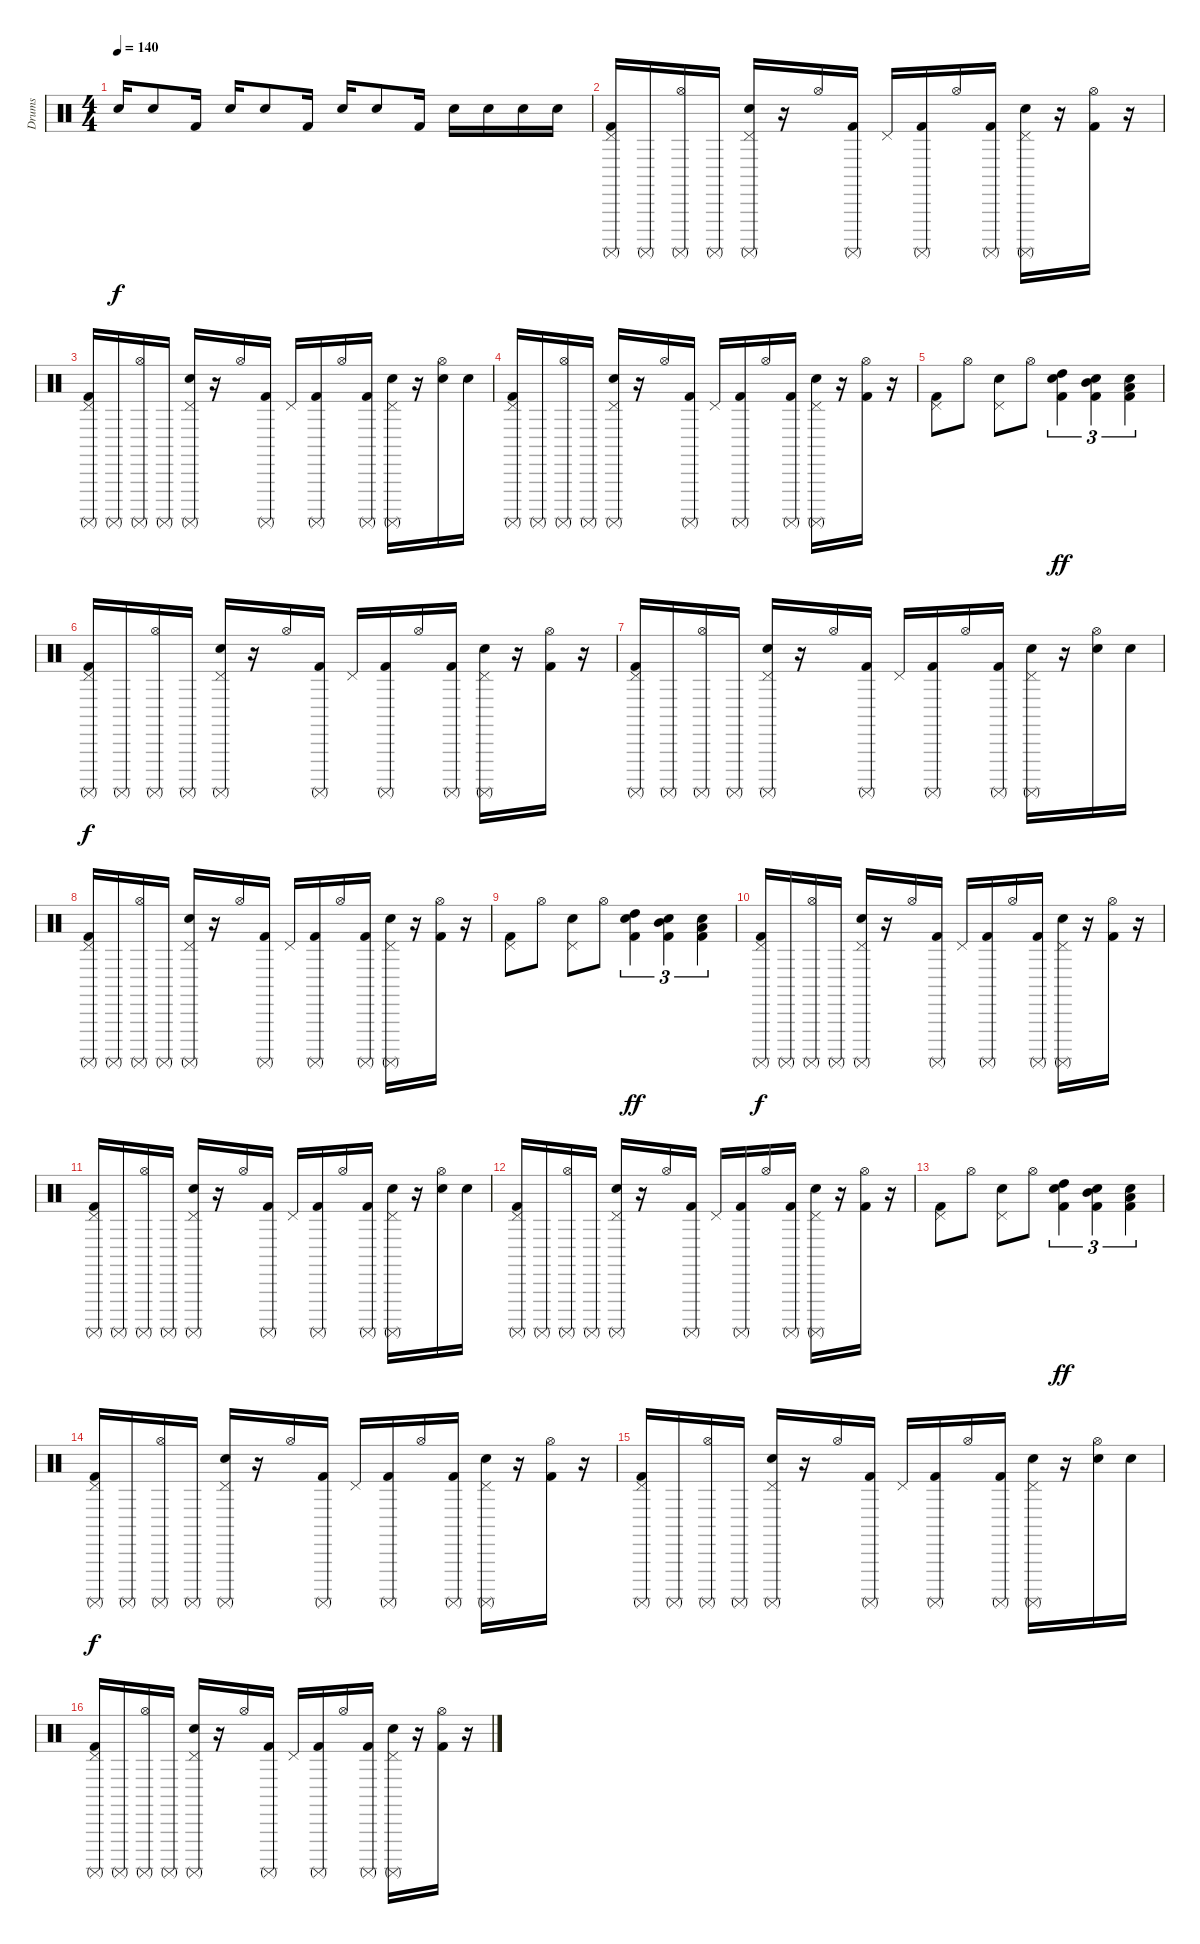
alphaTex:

\track ("Drums" "Drums") {instrument percussion}
\staff {score}
\articulation defaults
\ts (4 4)
\tempo 140
\clef neutral
\ks c "Electric Snare (hit)".16{dy f} "Electric Snare (hit)".8 "Kick (hit) 2".16 "Electric Snare (hit)".16 "Electric Snare (hit)".8 "Kick (hit) 2".16 "Electric Snare (hit)".16 "Electric Snare (hit)".8 "Kick (hit) 2".16 "Electric Snare (hit)".16 "Electric Snare (hit)".16 "Electric Snare (hit)".16 "Electric Snare (hit)".16
|
("Surdo (mute)" "Pedal Hi-Hat (hit)" "Kick (hit) 2").16 "Surdo (mute)".16 ("Surdo (mute)" "Hi-Hat (open)").16 "Surdo (mute)".16 ("Surdo (mute)" "Electric Snare (hit)" "Pedal Hi-Hat (hit)").16 r.16 "Hi-Hat (open)".16 ("Surdo (mute)" "Kick (hit) 2").16 "Pedal Hi-Hat (hit)".16 ("Surdo (mute)" "Kick (hit) 2").16 "Hi-Hat (open)".16 ("Surdo (mute)" "Kick (hit) 2").16 ("Surdo (mute)" "Electric Snare (hit)" "Pedal Hi-Hat (hit)").16 r.16 ("Hi-Hat (open)" "Kick (hit) 2").16 r.16 |
("Surdo (mute)" "Pedal Hi-Hat (hit)" "Kick (hit) 2").16 "Surdo (mute)".16 ("Surdo (mute)" "Hi-Hat (open)").16 "Surdo (mute)".16 ("Surdo (mute)" "Electric Snare (hit)" "Pedal Hi-Hat (hit)").16 r.16 "Hi-Hat (open)".16 ("Surdo (mute)" "Kick (hit) 2").16 "Pedal Hi-Hat (hit)".16 ("Surdo (mute)" "Kick (hit) 2").16 "Hi-Hat (open)".16 ("Surdo (mute)" "Kick (hit) 2").16 ("Surdo (mute)" "Electric Snare (hit)" "Pedal Hi-Hat (hit)").16 r.16 ("Electric Snare (hit)" "Hi-Hat (open)").16 "Electric Snare (hit)".16 |
("Surdo (mute)" "Pedal Hi-Hat (hit)" "Kick (hit) 2").16 "Surdo (mute)".16 ("Surdo (mute)" "Hi-Hat (open)").16 "Surdo (mute)".16 ("Surdo (mute)" "Electric Snare (hit)" "Pedal Hi-Hat (hit)").16 r.16 "Hi-Hat (open)".16 ("Surdo (mute)" "Kick (hit) 2").16 "Pedal Hi-Hat (hit)".16 ("Surdo (mute)" "Kick (hit) 2").16 "Hi-Hat (open)".16 ("Surdo (mute)" "Kick (hit) 2").16 ("Surdo (mute)" "Electric Snare (hit)" "Pedal Hi-Hat (hit)").16 r.16 ("Hi-Hat (open)" "Kick (hit) 2").16 r.16 |
("Pedal Hi-Hat (hit)" "Kick (hit) 2").8 "Hi-Hat (open)".8 ("Pedal Hi-Hat (hit)" "Electric Snare (hit)").8 "Hi-Hat (open)".8 ("High Tom (hit)" "Electric Snare (hit)" "Kick (hit) 2").4{tu (3 2) dy ff} ("Mid Tom (hit)" "Electric Snare (hit)" "Kick (hit) 2").4{tu (3 2)} ("Low Tom (hit)" "Electric Snare (hit)" "Kick (hit) 2").4{tu (3 2)} |
("Surdo (mute)" "Pedal Hi-Hat (hit)" "Kick (hit) 2").16{dy f} "Surdo (mute)".16 ("Surdo (mute)" "Hi-Hat (open)").16 "Surdo (mute)".16 ("Surdo (mute)" "Electric Snare (hit)" "Pedal Hi-Hat (hit)").16 r.16 "Hi-Hat (open)".16 ("Surdo (mute)" "Kick (hit) 2").16 "Pedal Hi-Hat (hit)".16 ("Surdo (mute)" "Kick (hit) 2").16 "Hi-Hat (open)".16 ("Surdo (mute)" "Kick (hit) 2").16 ("Surdo (mute)" "Electric Snare (hit)" "Pedal Hi-Hat (hit)").16 r.16 ("Hi-Hat (open)" "Kick (hit) 2").16 r.16 |
("Surdo (mute)" "Pedal Hi-Hat (hit)" "Kick (hit) 2").16 "Surdo (mute)".16 ("Surdo (mute)" "Hi-Hat (open)").16 "Surdo (mute)".16 ("Surdo (mute)" "Electric Snare (hit)" "Pedal Hi-Hat (hit)").16 r.16 "Hi-Hat (open)".16 ("Surdo (mute)" "Kick (hit) 2").16 "Pedal Hi-Hat (hit)".16 ("Surdo (mute)" "Kick (hit) 2").16 "Hi-Hat (open)".16 ("Surdo (mute)" "Kick (hit) 2").16 ("Surdo (mute)" "Electric Snare (hit)" "Pedal Hi-Hat (hit)").16 r.16 ("Electric Snare (hit)" "Hi-Hat (open)").16 "Electric Snare (hit)".16 |
("Surdo (mute)" "Pedal Hi-Hat (hit)" "Kick (hit) 2").16 "Surdo (mute)".16 ("Surdo (mute)" "Hi-Hat (open)").16 "Surdo (mute)".16 ("Surdo (mute)" "Electric Snare (hit)" "Pedal Hi-Hat (hit)").16 r.16 "Hi-Hat (open)".16 ("Surdo (mute)" "Kick (hit) 2").16 "Pedal Hi-Hat (hit)".16 ("Surdo (mute)" "Kick (hit) 2").16 "Hi-Hat (open)".16 ("Surdo (mute)" "Kick (hit) 2").16 ("Surdo (mute)" "Electric Snare (hit)" "Pedal Hi-Hat (hit)").16 r.16 ("Hi-Hat (open)" "Kick (hit) 2").16 r.16 |
("Pedal Hi-Hat (hit)" "Kick (hit) 2").8 "Hi-Hat (open)".8 ("Pedal Hi-Hat (hit)" "Electric Snare (hit)").8 "Hi-Hat (open)".8 ("High Tom (hit)" "Electric Snare (hit)" "Kick (hit) 2").4{tu (3 2) dy ff} ("Mid Tom (hit)" "Electric Snare (hit)" "Kick (hit) 2").4{tu (3 2)} ("Low Tom (hit)" "Electric Snare (hit)" "Kick (hit) 2").4{tu (3 2)} |
("Surdo (mute)" "Pedal Hi-Hat (hit)" "Kick (hit) 2").16{dy f} "Surdo (mute)".16 ("Surdo (mute)" "Hi-Hat (open)").16 "Surdo (mute)".16 ("Surdo (mute)" "Electric Snare (hit)" "Pedal Hi-Hat (hit)").16 r.16 "Hi-Hat (open)".16 ("Surdo (mute)" "Kick (hit) 2").16 "Pedal Hi-Hat (hit)".16 ("Surdo (mute)" "Kick (hit) 2").16 "Hi-Hat (open)".16 ("Surdo (mute)" "Kick (hit) 2").16 ("Surdo (mute)" "Electric Snare (hit)" "Pedal Hi-Hat (hit)").16 r.16 ("Hi-Hat (open)" "Kick (hit) 2").16 r.16 |
("Surdo (mute)" "Pedal Hi-Hat (hit)" "Kick (hit) 2").16 "Surdo (mute)".16 ("Surdo (mute)" "Hi-Hat (open)").16 "Surdo (mute)".16 ("Surdo (mute)" "Electric Snare (hit)" "Pedal Hi-Hat (hit)").16 r.16 "Hi-Hat (open)".16 ("Surdo (mute)" "Kick (hit) 2").16 "Pedal Hi-Hat (hit)".16 ("Surdo (mute)" "Kick (hit) 2").16 "Hi-Hat (open)".16 ("Surdo (mute)" "Kick (hit) 2").16 ("Surdo (mute)" "Electric Snare (hit)" "Pedal Hi-Hat (hit)").16 r.16 ("Electric Snare (hit)" "Hi-Hat (open)").16 "Electric Snare (hit)".16 |
("Surdo (mute)" "Pedal Hi-Hat (hit)" "Kick (hit) 2").16 "Surdo (mute)".16 ("Surdo (mute)" "Hi-Hat (open)").16 "Surdo (mute)".16 ("Surdo (mute)" "Electric Snare (hit)" "Pedal Hi-Hat (hit)").16 r.16 "Hi-Hat (open)".16 ("Surdo (mute)" "Kick (hit) 2").16 "Pedal Hi-Hat (hit)".16 ("Surdo (mute)" "Kick (hit) 2").16 "Hi-Hat (open)".16 ("Surdo (mute)" "Kick (hit) 2").16 ("Surdo (mute)" "Electric Snare (hit)" "Pedal Hi-Hat (hit)").16 r.16 ("Hi-Hat (open)" "Kick (hit) 2").16 r.16 |
("Pedal Hi-Hat (hit)" "Kick (hit) 2").8 "Hi-Hat (open)".8 ("Pedal Hi-Hat (hit)" "Electric Snare (hit)").8 "Hi-Hat (open)".8 ("High Tom (hit)" "Electric Snare (hit)" "Kick (hit) 2").4{tu (3 2) dy ff} ("Mid Tom (hit)" "Electric Snare (hit)" "Kick (hit) 2").4{tu (3 2)} ("Low Tom (hit)" "Electric Snare (hit)" "Kick (hit) 2").4{tu (3 2)} |
("Surdo (mute)" "Pedal Hi-Hat (hit)" "Kick (hit) 2").16{dy f} "Surdo (mute)".16 ("Surdo (mute)" "Hi-Hat (open)").16 "Surdo (mute)".16 ("Surdo (mute)" "Electric Snare (hit)" "Pedal Hi-Hat (hit)").16 r.16 "Hi-Hat (open)".16 ("Surdo (mute)" "Kick (hit) 2").16 "Pedal Hi-Hat (hit)".16 ("Surdo (mute)" "Kick (hit) 2").16 "Hi-Hat (open)".16 ("Surdo (mute)" "Kick (hit) 2").16 ("Surdo (mute)" "Electric Snare (hit)" "Pedal Hi-Hat (hit)").16 r.16 ("Hi-Hat (open)" "Kick (hit) 2").16 r.16 |
("Surdo (mute)" "Pedal Hi-Hat (hit)" "Kick (hit) 2").16 "Surdo (mute)".16 ("Surdo (mute)" "Hi-Hat (open)").16 "Surdo (mute)".16 ("Surdo (mute)" "Electric Snare (hit)" "Pedal Hi-Hat (hit)").16 r.16 "Hi-Hat (open)".16 ("Surdo (mute)" "Kick (hit) 2").16 "Pedal Hi-Hat (hit)".16 ("Surdo (mute)" "Kick (hit) 2").16 "Hi-Hat (open)".16 ("Surdo (mute)" "Kick (hit) 2").16 ("Surdo (mute)" "Electric Snare (hit)" "Pedal Hi-Hat (hit)").16 r.16 ("Electric Snare (hit)" "Hi-Hat (open)").16 "Electric Snare (hit)".16 |
("Surdo (mute)" "Pedal Hi-Hat (hit)" "Kick (hit) 2").16 "Surdo (mute)".16 ("Surdo (mute)" "Hi-Hat (open)").16 "Surdo (mute)".16 ("Surdo (mute)" "Electric Snare (hit)" "Pedal Hi-Hat (hit)").16 r.16 "Hi-Hat (open)".16 ("Surdo (mute)" "Kick (hit) 2").16 "Pedal Hi-Hat (hit)".16 ("Surdo (mute)" "Kick (hit) 2").16 "Hi-Hat (open)".16 ("Surdo (mute)" "Kick (hit) 2").16 ("Surdo (mute)" "Electric Snare (hit)" "Pedal Hi-Hat (hit)").16 r.16 ("Hi-Hat (open)" "Kick (hit) 2").16 r.16
